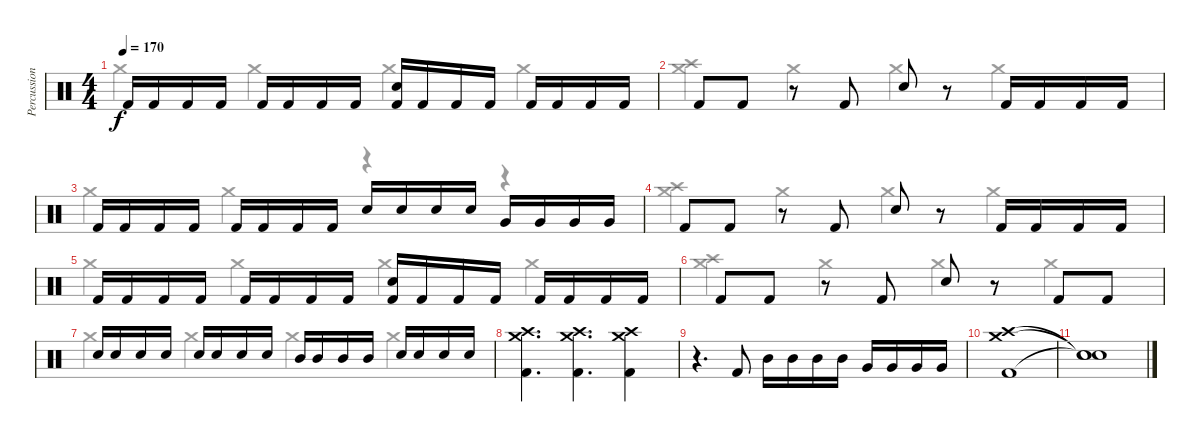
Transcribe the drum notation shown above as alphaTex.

\track ("Percussion" "Percussion") {instrument percussion}
\staff {score}
\articulation defaults
\voice
\ts (4 4)
\tempo 170
\clef neutral
\ks c "Kick (hit) 2".16{dy f} "Kick (hit) 2".16 "Kick (hit) 2".16 "Kick (hit) 2".16 "Kick (hit) 2".16 "Kick (hit) 2".16 "Kick (hit) 2".16 "Kick (hit) 2".16
("Snare (hit) 2" "Kick (hit) 2").16 "Kick (hit) 2".16 "Kick (hit) 2".16 "Kick (hit) 2".16 "Kick (hit) 2".16 "Kick (hit) 2".16 "Kick (hit) 2".16 "Kick (hit) 2".16 |
"Kick (hit) 2".8 "Kick (hit) 2".8 r.8 "Kick (hit) 2".8 "Snare (hit) 2".8 r.8 "Kick (hit) 2".16 "Kick (hit) 2".16 "Kick (hit) 2".16 "Kick (hit) 2".16 |
"Kick (hit) 2".16 "Kick (hit) 2".16 "Kick (hit) 2".16 "Kick (hit) 2".16 "Kick (hit) 2".16 "Kick (hit) 2".16 "Kick (hit) 2".16 "Kick (hit) 2".16 "Snare (hit) 2".16 "Snare (hit) 2".16 "Snare (hit) 2".16 "Snare (hit) 2".16 "Very Low Tom (hit)".16 "Very Low Tom (hit)".16 "Very Low Tom (hit)".16 "Very Low Tom (hit)".16 |
"Kick (hit) 2".8 "Kick (hit) 2".8 r.8 "Kick (hit) 2".8 "Snare (hit) 2".8 r.8 "Kick (hit) 2".16 "Kick (hit) 2".16 "Kick (hit) 2".16 "Kick (hit) 2".16 |
"Kick (hit) 2".16 "Kick (hit) 2".16 "Kick (hit) 2".16 "Kick (hit) 2".16 "Kick (hit) 2".16 "Kick (hit) 2".16 "Kick (hit) 2".16 "Kick (hit) 2".16 ("Snare (hit) 2" "Kick (hit) 2").16 "Kick (hit) 2".16 "Kick (hit) 2".16 "Kick (hit) 2".16 "Kick (hit) 2".16 "Kick (hit) 2".16 "Kick (hit) 2".16 "Kick (hit) 2".16 |
"Kick (hit) 2".8 "Kick (hit) 2".8 r.8 "Kick (hit) 2".8 "Snare (hit) 2".8 r.8 "Kick (hit) 2".8 "Kick (hit) 2".8 |
"Snare (hit) 2".16 "Snare (hit) 2".16 "Snare (hit) 2".16 "Snare (hit) 2".16 "Snare (hit) 2".16 "Snare (hit) 2".16 "Snare (hit) 2".16 "Snare (hit) 2".16 "Mid Tom (hit)".16 "Mid Tom (hit)".16 "Mid Tom (hit)".16 "Mid Tom (hit)".16 "Snare (hit) 2".16 "Snare (hit) 2".16 "Snare (hit) 2".16 "Snare (hit) 2".16 |
("Crash high (hit)" "Crash medium (hit)" "Kick (hit) 2").4{d} ("Crash high (hit)" "Crash medium (hit)" "Kick (hit) 2").4{d} ("Crash high (hit)" "Crash medium (hit)" "Kick (hit) 2").4 |
r.4{d} "Kick (hit) 2".8 "Mid Tom (hit)".16 "Mid Tom (hit)".16 "Mid Tom (hit)".16 "Mid Tom (hit)".16 "Very Low Tom (hit)".16 "Very Low Tom (hit)".16 "Very Low Tom (hit)".16 "Very Low Tom (hit)".16 |
("Crash high (hit)" "Crash medium (hit)" "Kick (hit) 2").1 |
("Snare (hit)"{t} "Snare (hit)"{t} "Snare (hit)"{t}).1
\voice
\clef neutral
\ottava regular
\simile none
\ks c "Crash medium (hit)".4{dy f} "Crash medium (hit)".4 "Crash medium (hit)".4 "Crash medium (hit)".4
|
("Crash medium (hit)" "Crash high (hit)").4 "Crash medium (hit)".4 "Crash medium (hit)".4 "Crash medium (hit)".4 |
"Crash medium (hit)".4 "Crash medium (hit)".4 r.4 r.4 |
("Crash medium (hit)" "Crash high (hit)").4 "Crash medium (hit)".4 "Crash medium (hit)".4 "Crash medium (hit)".4 |
"Crash medium (hit)".4 "Crash medium (hit)".4 "Crash medium (hit)".4 "Crash medium (hit)".4 |
("Crash medium (hit)" "Crash high (hit)").4 "Crash medium (hit)".4 "Crash medium (hit)".4 "Crash medium (hit)".4 |
"Crash medium (hit)".4 "Crash medium (hit)".4 "Crash medium (hit)".4 "Crash medium (hit)".4 |
|
|
|
